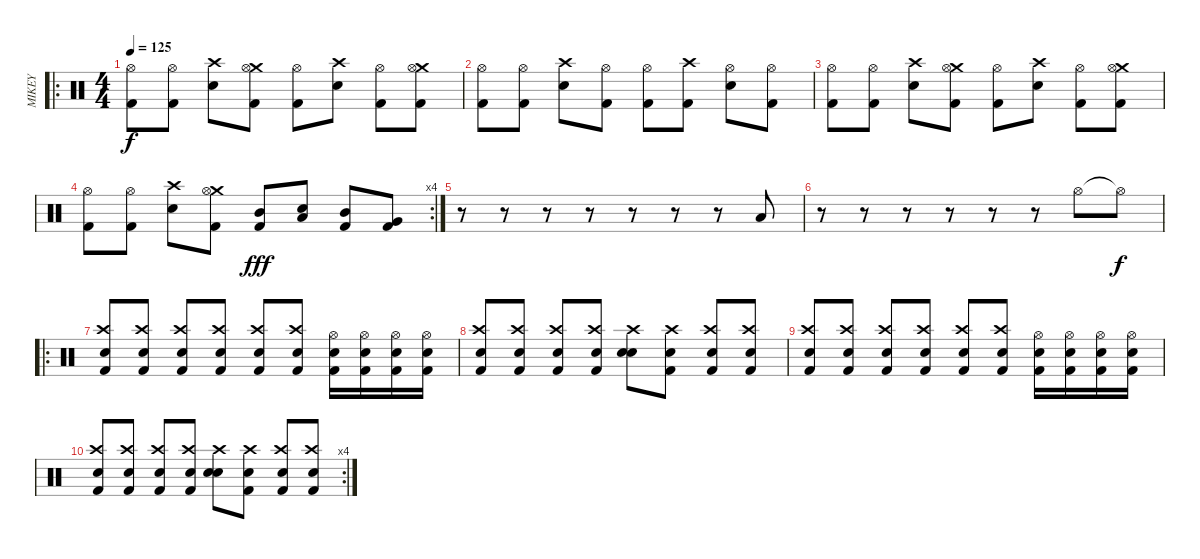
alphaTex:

\track ("MIKEY" "MIKEY") {instrument percussion}
\staff {score}
\articulation defaults
\ro
\ts (4 4)
\tempo 125
\clef neutral
\ks c
("Hi-Hat (open)" "Kick (hit) 2").8{dy f} ("Hi-Hat (open)" "Kick (hit) 2").8 ("Crash high (hit)" "Electric Snare (hit)").8 ("Crash medium (hit)" "Hi-Hat (open)" "Kick (hit) 2").8 ("Hi-Hat (open)" "Kick (hit) 2").8 ("Crash high (hit)" "Electric Snare (hit)").8 ("Hi-Hat (open)" "Kick (hit) 2").8 ("Crash medium (hit)" "Hi-Hat (open)" "Kick (hit) 2").8 |
("Hi-Hat (open)" "Kick (hit) 2").8 ("Hi-Hat (open)" "Kick (hit) 2").8 ("Crash high (hit)" "Electric Snare (hit)").8 ("Hi-Hat (open)" "Kick (hit) 2").8 ("Hi-Hat (open)" "Kick (hit) 2").8 ("Crash high (hit)" "Kick (hit) 2").8 ("Hi-Hat (open)" "Electric Snare (hit)").8 ("Hi-Hat (open)" "Kick (hit) 2").8 |
("Hi-Hat (open)" "Kick (hit) 2").8 ("Hi-Hat (open)" "Kick (hit) 2").8 ("Crash high (hit)" "Electric Snare (hit)").8 ("Crash medium (hit)" "Hi-Hat (open)" "Kick (hit) 2").8 ("Hi-Hat (open)" "Kick (hit) 2").8 ("Crash high (hit)" "Electric Snare (hit)").8 ("Hi-Hat (open)" "Kick (hit) 2").8 ("Crash medium (hit)" "Hi-Hat (open)" "Kick (hit) 2").8 |
\rc 4
("Hi-Hat (open)" "Kick (hit) 2").8 ("Hi-Hat (open)" "Kick (hit) 2").8 ("Crash high (hit)" "Electric Snare (hit)").8 ("Crash medium (hit)" "Hi-Hat (open)" "Kick (hit) 2").8 ("Mid Tom (hit)" "Kick (hit) 2").8{dy fff} ("Low Tom (hit)" "Electric Snare (hit)").8 ("Mid Tom (hit)" "Kick (hit) 2").8 ("Very Low Tom (hit)" "Kick (hit) 2").8 |
r.8 r.8 r.8 r.8 r.8 r.8 r.8 "Low Floor Tom (hit)".8 |
r.8 r.8 r.8 r.8 r.8 r.8 "Hi-Hat (open)".8 "Hi-Hat (open)"{t}.8{dy f} |
\ro
("Crash high (hit)" "Kick (hit) 2" "Snare (hit) 2").8 ("Crash high (hit)" "Kick (hit) 2" "Snare (hit) 2").8 ("Crash high (hit)" "Kick (hit) 2" "Snare (hit) 2").8 ("Crash high (hit)" "Kick (hit) 2" "Snare (hit) 2").8 ("Crash high (hit)" "Kick (hit) 2" "Snare (hit) 2").8 ("Crash high (hit)" "Kick (hit) 2" "Snare (hit) 2").8 ("Hi-Hat (open)" "Kick (hit) 2" "Snare (hit) 2").16 ("Hi-Hat (open)" "Kick (hit) 2" "Snare (hit) 2").16 ("Hi-Hat (open)" "Kick (hit) 2" "Snare (hit) 2").16 ("Hi-Hat (open)" "Kick (hit) 2" "Snare (hit) 2").16 |
("Crash high (hit)" "Kick (hit) 2" "Snare (hit) 2").8 ("Crash high (hit)" "Kick (hit) 2" "Snare (hit) 2").8 ("Crash high (hit)" "Kick (hit) 2" "Snare (hit) 2").8 ("Crash high (hit)" "Kick (hit) 2" "Snare (hit) 2").8 ("Crash high (hit)" "Snare (hit)" "Snare (hit) 2").8 ("Crash high (hit)" "Kick (hit) 2" "Snare (hit) 2").8 ("Crash high (hit)" "Kick (hit) 2" "Snare (hit) 2").8 ("Crash high (hit)" "Kick (hit) 2" "Snare (hit) 2").8 |
("Crash high (hit)" "Kick (hit) 2" "Snare (hit) 2").8 ("Crash high (hit)" "Kick (hit) 2" "Snare (hit) 2").8 ("Crash high (hit)" "Kick (hit) 2" "Snare (hit) 2").8 ("Crash high (hit)" "Kick (hit) 2" "Snare (hit) 2").8 ("Crash high (hit)" "Kick (hit) 2" "Snare (hit) 2").8 ("Crash high (hit)" "Kick (hit) 2" "Snare (hit) 2").8 ("Hi-Hat (open)" "Kick (hit) 2" "Snare (hit) 2").16 ("Hi-Hat (open)" "Kick (hit) 2" "Snare (hit) 2").16 ("Hi-Hat (open)" "Kick (hit) 2" "Snare (hit) 2").16 ("Hi-Hat (open)" "Kick (hit) 2" "Snare (hit) 2").16 |
\rc 4
("Crash high (hit)" "Kick (hit) 2" "Snare (hit) 2").8 ("Crash high (hit)" "Kick (hit) 2" "Snare (hit) 2").8 ("Crash high (hit)" "Kick (hit) 2" "Snare (hit) 2").8 ("Crash high (hit)" "Kick (hit) 2" "Snare (hit) 2").8 ("Crash high (hit)" "Snare (hit)" "Snare (hit) 2").8 ("Crash high (hit)" "Kick (hit) 2" "Snare (hit) 2").8 ("Crash high (hit)" "Kick (hit) 2" "Snare (hit) 2").8 ("Crash high (hit)" "Kick (hit) 2" "Snare (hit) 2").8
